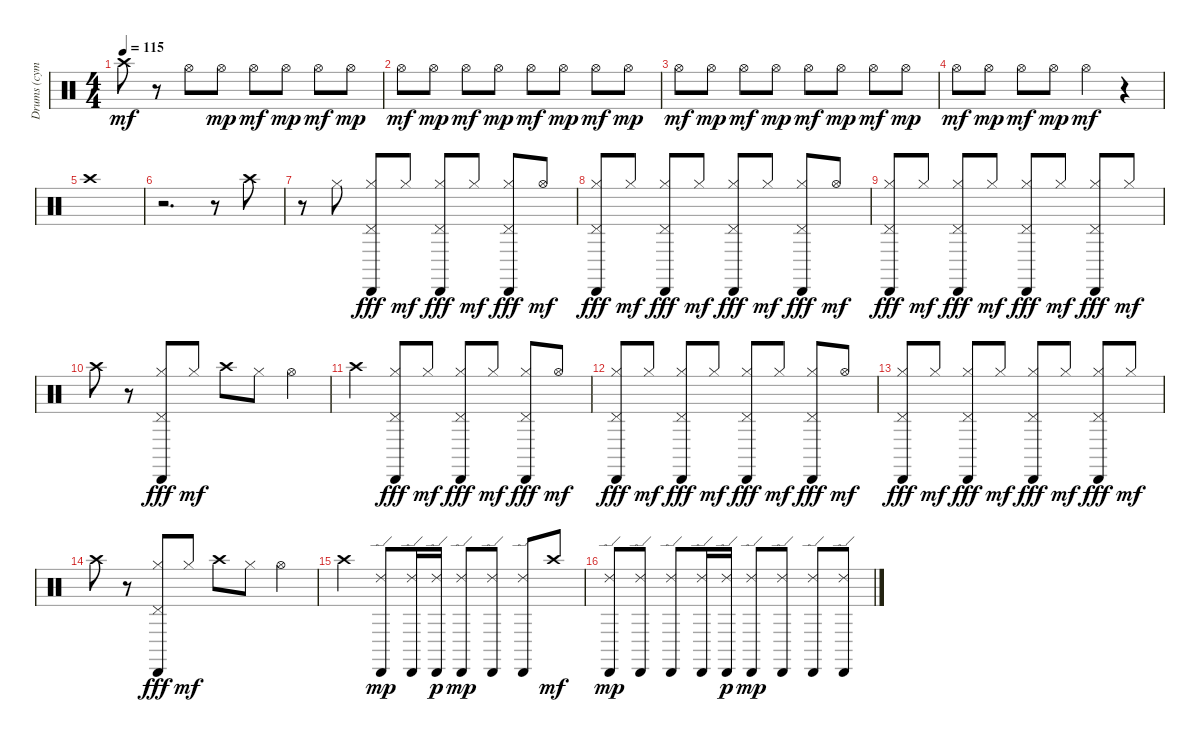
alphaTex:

\track ("Drums (cymbals)" "Drums (cym") {instrument percussion}
\staff {score}
\articulation defaults
\ts (4 4)
\tempo 115
\clef neutral
\ks c "Crash high (hit)".8{dy mf}
r.8 "Hi-Hat (open)".8 "Hi-Hat (open)".8{dy mp} "Hi-Hat (open)".8{dy mf} "Hi-Hat (open)".8{dy mp} "Hi-Hat (open)".8{dy mf} "Hi-Hat (open)".8{dy mp} |
"Hi-Hat (open)".8{dy mf} "Hi-Hat (open)".8{dy mp} "Hi-Hat (open)".8{dy mf} "Hi-Hat (open)".8{dy mp} "Hi-Hat (open)".8{dy mf} "Hi-Hat (open)".8{dy mp} "Hi-Hat (open)".8{dy mf} "Hi-Hat (open)".8{dy mp} |
"Hi-Hat (open)".8{dy mf} "Hi-Hat (open)".8{dy mp} "Hi-Hat (open)".8{dy mf} "Hi-Hat (open)".8{dy mp} "Hi-Hat (open)".8{dy mf} "Hi-Hat (open)".8{dy mp} "Hi-Hat (open)".8{dy mf} "Hi-Hat (open)".8{dy mp} |
"Hi-Hat (open)".8{dy mf} "Hi-Hat (open)".8{dy mp} "Hi-Hat (open)".8{dy mf} "Hi-Hat (open)".8{dy mp} "Hi-Hat (open)".4{dy mf} r.4 |
"Crash high (hit)".1 |
r.2{d} r.8 "Crash high (hit)".8 |
r.8 "Hi-Hat (closed)".8 ("Hi-Hat (closed)" "Pedal Hi-Hat (hit)" "Cabasa (hit)").8{dy fff} "Hi-Hat (closed)".8{dy mf} ("Hi-Hat (closed)" "Pedal Hi-Hat (hit)" "Cabasa (hit)").8{dy fff} "Hi-Hat (closed)".8{dy mf} ("Hi-Hat (closed)" "Pedal Hi-Hat (hit)" "Cabasa (hit)").8{dy fff} "Hi-Hat (open)".8{dy mf} |
("Hi-Hat (closed)" "Pedal Hi-Hat (hit)" "Cabasa (hit)").8{dy fff} "Hi-Hat (closed)".8{dy mf} ("Hi-Hat (closed)" "Pedal Hi-Hat (hit)" "Cabasa (hit)").8{dy fff} "Hi-Hat (closed)".8{dy mf} ("Hi-Hat (closed)" "Pedal Hi-Hat (hit)" "Cabasa (hit)").8{dy fff} "Hi-Hat (closed)".8{dy mf} ("Hi-Hat (closed)" "Pedal Hi-Hat (hit)" "Cabasa (hit)").8{dy fff} "Hi-Hat (open)".8{dy mf} |
("Hi-Hat (closed)" "Pedal Hi-Hat (hit)" "Cabasa (hit)").8{dy fff} "Hi-Hat (closed)".8{dy mf} ("Hi-Hat (closed)" "Pedal Hi-Hat (hit)" "Cabasa (hit)").8{dy fff} "Hi-Hat (closed)".8{dy mf} ("Hi-Hat (closed)" "Pedal Hi-Hat (hit)" "Cabasa (hit)").8{dy fff} "Hi-Hat (closed)".8{dy mf} ("Hi-Hat (closed)" "Pedal Hi-Hat (hit)" "Cabasa (hit)").8{dy fff} "Hi-Hat (closed)".8{dy mf} |
"Crash high (hit)".8 r.8 ("Hi-Hat (closed)" "Pedal Hi-Hat (hit)" "Cabasa (hit)").8{dy fff} "Hi-Hat (closed)".8{dy mf} "Crash high (hit)".8 "Hi-Hat (closed)".8 "Hi-Hat (open)".4 |
"Crash high (hit)".4 ("Hi-Hat (closed)" "Pedal Hi-Hat (hit)" "Cabasa (hit)").8{dy fff} "Hi-Hat (closed)".8{dy mf} ("Hi-Hat (closed)" "Pedal Hi-Hat (hit)" "Cabasa (hit)").8{dy fff} "Hi-Hat (closed)".8{dy mf} ("Hi-Hat (closed)" "Pedal Hi-Hat (hit)" "Cabasa (hit)").8{dy fff} "Hi-Hat (open)".8{dy mf} |
("Hi-Hat (closed)" "Pedal Hi-Hat (hit)" "Cabasa (hit)").8{dy fff} "Hi-Hat (closed)".8{dy mf} ("Hi-Hat (closed)" "Pedal Hi-Hat (hit)" "Cabasa (hit)").8{dy fff} "Hi-Hat (closed)".8{dy mf} ("Hi-Hat (closed)" "Pedal Hi-Hat (hit)" "Cabasa (hit)").8{dy fff} "Hi-Hat (closed)".8{dy mf} ("Hi-Hat (closed)" "Pedal Hi-Hat (hit)" "Cabasa (hit)").8{dy fff} "Hi-Hat (open)".8{dy mf} |
("Hi-Hat (closed)" "Pedal Hi-Hat (hit)" "Cabasa (hit)").8{dy fff} "Hi-Hat (closed)".8{dy mf} ("Hi-Hat (closed)" "Pedal Hi-Hat (hit)" "Cabasa (hit)").8{dy fff} "Hi-Hat (closed)".8{dy mf} ("Hi-Hat (closed)" "Pedal Hi-Hat (hit)" "Cabasa (hit)").8{dy fff} "Hi-Hat (closed)".8{dy mf} ("Hi-Hat (closed)" "Pedal Hi-Hat (hit)" "Cabasa (hit)").8{dy fff} "Hi-Hat (closed)".8{dy mf} |
"Crash high (hit)".8 r.8 ("Hi-Hat (closed)" "Pedal Hi-Hat (hit)" "Cabasa (hit)").8{dy fff} "Hi-Hat (closed)".8{dy mf} "Crash high (hit)".8 "Hi-Hat (closed)".8 "Hi-Hat (open)".4 |
"Crash high (hit)".4 ("Ride (edge) 2" "Cabasa (hit)").8{dy mp} ("Ride (edge) 2" "Cabasa (hit)").16 ("Ride (edge) 2" "Cabasa (hit)").16{dy p} ("Ride (edge) 2" "Cabasa (hit)").8{dy mp} ("Ride (edge) 2" "Cabasa (hit)").8 ("Ride (edge) 2" "Cabasa (hit)").8 "Crash high (hit)".8{dy mf} |
("Ride (edge) 2" "Cabasa (hit)").8{dy mp} ("Ride (edge) 2" "Cabasa (hit)").8 ("Ride (edge) 2" "Cabasa (hit)").8 ("Ride (edge) 2" "Cabasa (hit)").16 ("Ride (edge) 2" "Cabasa (hit)").16{dy p} ("Ride (edge) 2" "Cabasa (hit)").8{dy mp} ("Ride (edge) 2" "Cabasa (hit)").8 ("Ride (edge) 2" "Cabasa (hit)").8 ("Ride (edge) 2" "Cabasa (hit)").8
